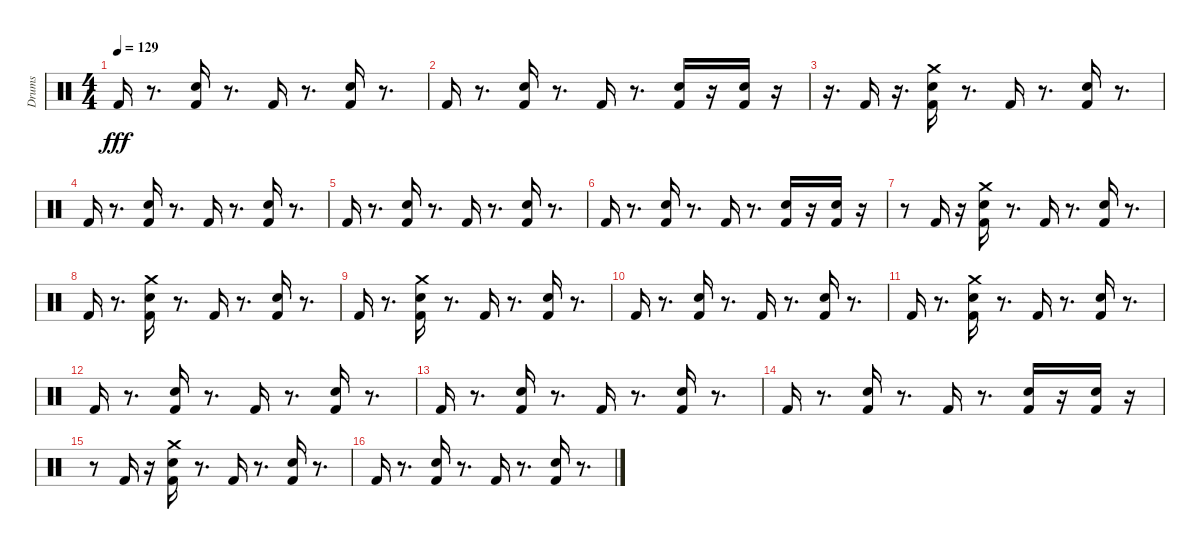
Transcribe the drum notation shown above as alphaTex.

\track ("Drums" "Drums") {instrument percussion}
\staff {score}
\articulation defaults
\ts (4 4)
\tempo 129
\clef neutral
\ks c "Kick (hit) 2".16{dy fff}
r.8{d} ("Kick (hit) 2" "Electric Snare (hit)").16 r.8{d} "Kick (hit) 2".16 r.8{d} ("Kick (hit) 2" "Electric Snare (hit)").16 r.8{d} |
"Kick (hit) 2".16 r.8{d} ("Kick (hit) 2" "Electric Snare (hit)").16 r.8{d} "Kick (hit) 2".16 r.8{d} ("Kick (hit) 2" "Electric Snare (hit)").16 r.16 ("Electric Snare (hit)" "Kick (hit) 2").16 r.16 |
r.16{d} "Kick (hit) 2".16 r.16{d} ("Kick (hit) 2" "Crash medium (hit)" "Electric Snare (hit)").16 r.8{d} "Kick (hit) 2".16 r.8{d} ("Kick (hit) 2" "Electric Snare (hit)").16 r.8{d} |
"Kick (hit) 2".16 r.8{d} ("Kick (hit) 2" "Electric Snare (hit)").16 r.8{d} "Kick (hit) 2".16 r.8{d} ("Kick (hit) 2" "Electric Snare (hit)").16 r.8{d} |
"Kick (hit) 2".16 r.8{d} ("Kick (hit) 2" "Electric Snare (hit)").16 r.8{d} "Kick (hit) 2".16 r.8{d} ("Kick (hit) 2" "Electric Snare (hit)").16 r.8{d} |
"Kick (hit) 2".16 r.8{d} ("Kick (hit) 2" "Electric Snare (hit)").16 r.8{d} "Kick (hit) 2".16 r.8{d} ("Kick (hit) 2" "Electric Snare (hit)").16 r.16 ("Kick (hit) 2" "Electric Snare (hit)").16 r.16 |
r.8 "Kick (hit) 2".16 r.16 ("Kick (hit) 2" "Crash medium (hit)" "Electric Snare (hit)").16 r.8{d} "Kick (hit) 2".16 r.8{d} ("Kick (hit) 2" "Electric Snare (hit)").16 r.8{d} |
"Kick (hit) 2".16 r.8{d} ("Kick (hit) 2" "Crash medium (hit)" "Electric Snare (hit)").16 r.8{d} "Kick (hit) 2".16 r.8{d} ("Kick (hit) 2" "Electric Snare (hit)").16 r.8{d} |
"Kick (hit) 2".16 r.8{d} ("Crash medium (hit)" "Kick (hit) 2" "Electric Snare (hit)").16 r.8{d} "Kick (hit) 2".16 r.8{d} ("Kick (hit) 2" "Electric Snare (hit)").16 r.8{d} |
"Kick (hit) 2".16 r.8{d} ("Kick (hit) 2" "Electric Snare (hit)").16 r.8{d} "Kick (hit) 2".16 r.8{d} ("Electric Snare (hit)" "Kick (hit) 2").16 r.8{d} |
"Kick (hit) 2".16 r.8{d} ("Crash medium (hit)" "Kick (hit) 2" "Electric Snare (hit)").16 r.8{d} "Kick (hit) 2".16 r.8{d} ("Kick (hit) 2" "Electric Snare (hit)").16 r.8{d} |
"Kick (hit) 2".16 r.8{d} ("Kick (hit) 2" "Electric Snare (hit)").16 r.8{d} "Kick (hit) 2".16 r.8{d} ("Kick (hit) 2" "Electric Snare (hit)").16 r.8{d} |
"Kick (hit) 2".16 r.8{d} ("Kick (hit) 2" "Electric Snare (hit)").16 r.8{d} "Kick (hit) 2".16 r.8{d} ("Kick (hit) 2" "Electric Snare (hit)").16 r.8{d} |
"Kick (hit) 2".16 r.8{d} ("Kick (hit) 2" "Electric Snare (hit)").16 r.8{d} "Kick (hit) 2".16 r.8{d} ("Kick (hit) 2" "Electric Snare (hit)").16 r.16 ("Kick (hit) 2" "Electric Snare (hit)").16 r.16 |
r.8 "Kick (hit) 2".16 r.16 ("Crash medium (hit)" "Kick (hit) 2" "Electric Snare (hit)").16 r.8{d} "Kick (hit) 2".16 r.8{d} ("Kick (hit) 2" "Electric Snare (hit)").16 r.8{d} |
"Kick (hit) 2".16 r.8{d} ("Kick (hit) 2" "Electric Snare (hit)").16 r.8{d} "Kick (hit) 2".16 r.8{d} ("Kick (hit) 2" "Electric Snare (hit)").16 r.8{d}
